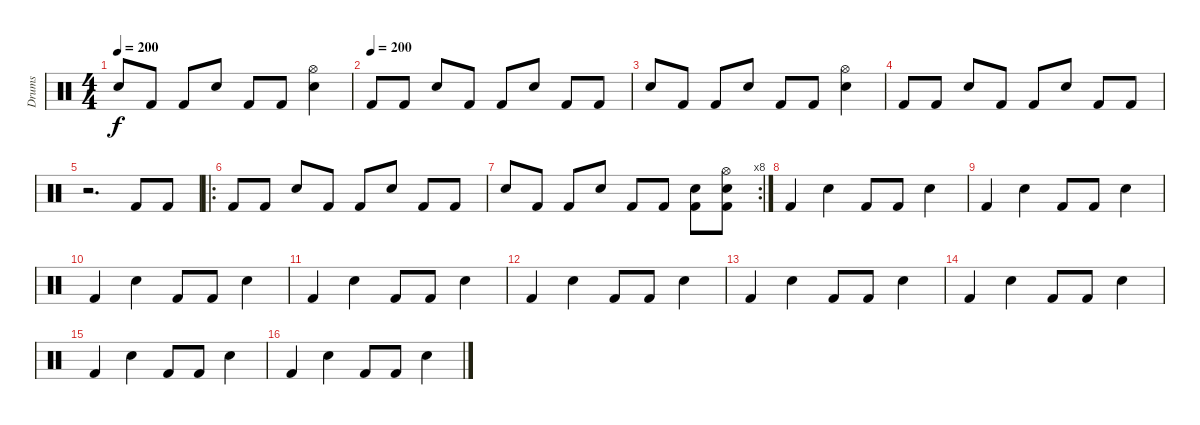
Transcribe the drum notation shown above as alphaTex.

\track ("Drums" "Drums") {instrument percussion}
\staff {score}
\articulation defaults
\ts (4 4)
\tempo 200
\clef neutral
\ks c "Snare (hit) 2".8{dy f} "Kick (hit) 2".8 "Kick (hit) 2".8 "Snare (hit) 2".8 "Kick (hit) 2".8 "Kick (hit) 2".8
("Hi-Hat (open)" "Snare (hit) 2").4 |
\tempo (200)
"Kick (hit) 2".8 "Kick (hit) 2".8 "Snare (hit) 2".8 "Kick (hit) 2".8 "Kick (hit) 2".8 "Snare (hit) 2".8 "Kick (hit) 2".8 "Kick (hit) 2".8 |
"Snare (hit) 2".8 "Kick (hit) 2".8 "Kick (hit) 2".8 "Snare (hit) 2".8 "Kick (hit) 2".8 "Kick (hit) 2".8 ("Hi-Hat (open)" "Snare (hit) 2").4 |
"Kick (hit) 2".8 "Kick (hit) 2".8 "Snare (hit) 2".8 "Kick (hit) 2".8 "Kick (hit) 2".8 "Snare (hit) 2".8 "Kick (hit) 2".8 "Kick (hit) 2".8 |
r.2{d} "Kick (hit) 2".8 "Kick (hit) 2".8 |
\ro "Kick (hit) 2".8 "Kick (hit) 2".8 "Snare (hit) 2".8 "Kick (hit) 2".8 "Kick (hit) 2".8 "Snare (hit) 2".8 "Kick (hit) 2".8 "Kick (hit) 2".8
|
\rc 8 "Snare (hit) 2".8 "Kick (hit) 2".8 "Kick (hit) 2".8 "Snare (hit) 2".8 "Kick (hit) 2".8 "Kick (hit) 2".8
("Kick (hit) 2" "Snare (hit) 2").8 ("Kick (hit) 2" "Snare (hit) 2" "Hi-Hat (open)").8 |
"Kick (hit) 2".4 "Snare (hit) 2".4 "Kick (hit) 2".8 "Kick (hit) 2".8 "Snare (hit) 2".4 |
"Kick (hit) 2".4 "Snare (hit) 2".4 "Kick (hit) 2".8 "Kick (hit) 2".8 "Snare (hit) 2".4 |
"Kick (hit) 2".4 "Snare (hit) 2".4 "Kick (hit) 2".8 "Kick (hit) 2".8 "Snare (hit) 2".4 |
"Kick (hit) 2".4 "Snare (hit) 2".4 "Kick (hit) 2".8 "Kick (hit) 2".8 "Snare (hit) 2".4 |
"Kick (hit) 2".4 "Snare (hit) 2".4 "Kick (hit) 2".8 "Kick (hit) 2".8 "Snare (hit) 2".4 |
"Kick (hit) 2".4 "Snare (hit) 2".4 "Kick (hit) 2".8 "Kick (hit) 2".8 "Snare (hit) 2".4 |
"Kick (hit) 2".4 "Snare (hit) 2".4 "Kick (hit) 2".8 "Kick (hit) 2".8 "Snare (hit) 2".4 |
"Kick (hit) 2".4 "Snare (hit) 2".4 "Kick (hit) 2".8 "Kick (hit) 2".8 "Snare (hit) 2".4 |
"Kick (hit) 2".4 "Snare (hit) 2".4 "Kick (hit) 2".8 "Kick (hit) 2".8 "Snare (hit) 2".4
